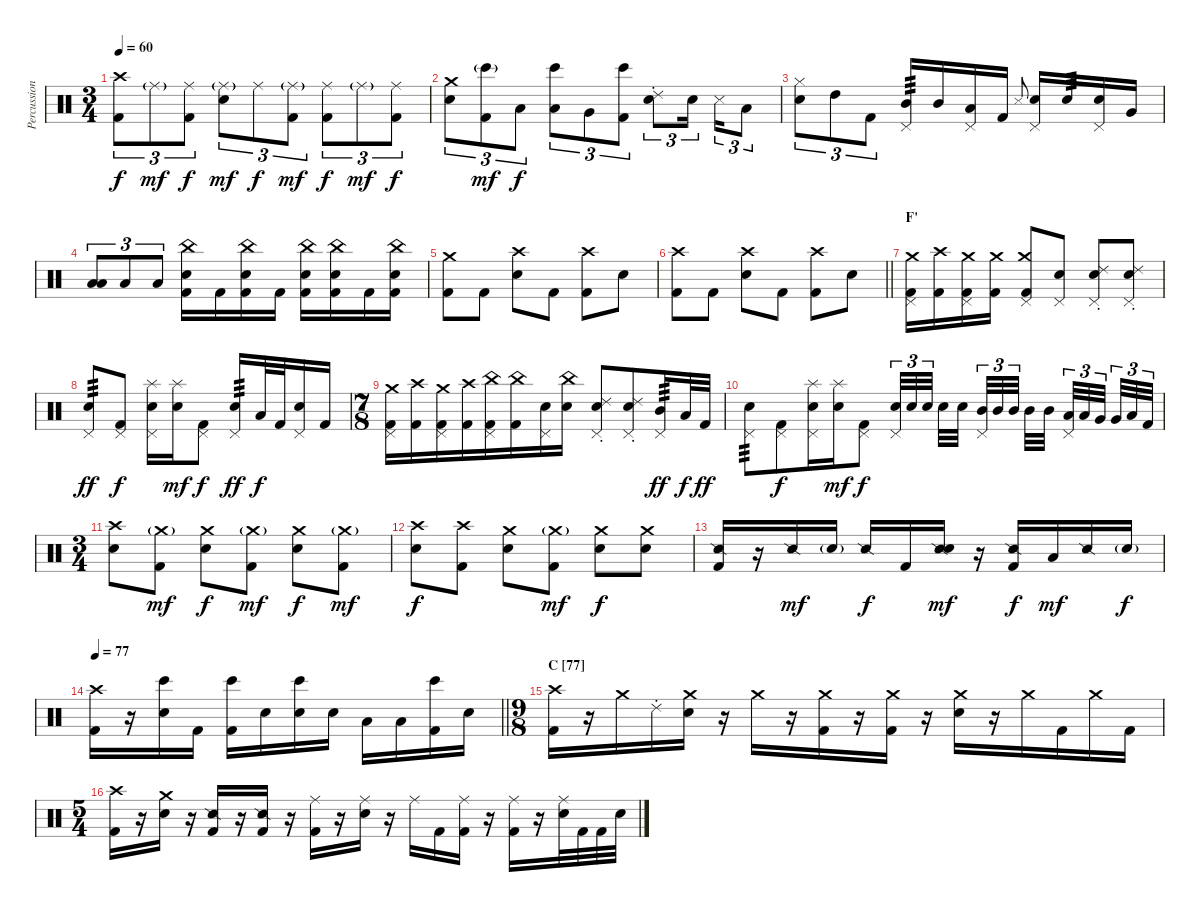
\track ("Percussion" "Percussion") {instrument percussion}
\staff {score}
\articulation defaults
\ts (3 4)
\tempo 60
\clef neutral
\ks c
("Crash high (hit)" "Kick (hit) 2").8{tu (3 2) dy f} "Ride (middle)"{g}.8{tu (3 2) dy mf} ("Ride (middle)" "Kick (hit) 2").8{tu (3 2) dy f} ("Ride (middle)"{g} "Snare (hit) 2").8{tu (3 2) dy mf} "Ride (middle)".8{tu (3 2) dy f} ("Ride (middle)"{g} "Kick (hit) 2").8{tu (3 2) dy mf} ("Ride (middle)" "Kick (hit) 2").8{tu (3 2) dy f} "Ride (middle)"{g}.8{tu (3 2) dy mf} ("Ride (middle)" "Kick (hit) 2").8{tu (3 2) dy f} |
("Crash medium (hit)" "Snare (hit) 2").8{tu (3 2)} ("Bongo High (hit)"{g} "Kick (hit) 2").8{tu (3 2) dy mf} "Low Tom (hit)".8{tu (3 2) dy f} ("Bongo High (hit)" "Low Tom (hit)").8{tu (3 2)} "Very Low Tom (hit)".8{tu (3 2)} ("Bongo High (hit)" "Kick (hit) 2").8{tu (3 2)} ("Ride (choke) 2" "Snare (hit) 2").8{tu (3 2)} "Snare (hit) 2".16{tu (3 2) beam splitsecondary} "Metronome (hit)".16{tu (3 2)} "Low Tom (hit)".8{tu (3 2)} |
("Hi-Hat (closed)" "Snare (hit) 2").8{tu (3 2)} "High Tom (hit)".8{tu (3 2)} "Kick (hit) 2".8{tu (3 2)} ("Pedal Hi-Hat (hit)" "Mid Tom (hit)").16{tp 3} "Mid Tom (hit)".16 ("Pedal Hi-Hat (hit)" "Low Tom (hit)").16 "Kick (hit) 2".16 "Metronome (hit)".8{gr onbeat} ("Pedal Hi-Hat (hit)" "Snare (hit) 2").16 "Snare (hit) 2".16{tp 3} ("Pedal Hi-Hat (hit)" "Snare (hit) 2").16 "Very Low Tom (hit)".16 |
("Low Floor Tom (hit)" "Low Floor Tom (hit)").8{tu (3 2) bu 480} "Low Floor Tom (hit)".8{tu (3 2)} "Low Floor Tom (hit)".8{tu (3 2)} ("China (hit)" "Snare (hit) 2" "Kick (hit) 2").16 "Kick (hit) 2".16 ("China (hit)" "Snare (hit) 2" "Kick (hit) 2").16 "Kick (hit) 2".16 ("China (hit)" "Snare (hit) 2" "Kick (hit) 2").16 ("China (hit)" "Snare (hit) 2" "Kick (hit) 2").16 "Kick (hit) 2".16 ("China (hit)" "Snare (hit) 2" "Kick (hit) 2").16 |
("Crash medium (hit)" "Kick (hit) 2").8 "Kick (hit) 2".8 ("Crash high (hit)" "Snare (hit) 2").8 "Kick (hit) 2".8 ("Crash high (hit)" "Kick (hit) 2").8 "Snare (hit) 2".8 |
\barLineRight lightlight
("Crash high (hit)" "Kick (hit) 2").8 "Kick (hit) 2".8 ("Crash high (hit)" "Snare (hit) 2").8 "Kick (hit) 2".8 ("Crash high (hit)" "Kick (hit) 2").8 "Snare (hit) 2".8 |
\section ("" "F'")
("Crash medium (hit)" "Pedal Hi-Hat (hit)" "Kick (hit) 2").16 ("Crash high (hit)" "Kick (hit) 2").16 ("Crash medium (hit)" "Pedal Hi-Hat (hit)" "Kick (hit) 2").16 ("Crash medium (hit)" "Kick (hit) 2").16 ("Crash medium (hit)" "Pedal Hi-Hat (hit)" "Kick (hit) 2").8 ("Pedal Hi-Hat (hit)" "Snare (hit) 2").8 ("Ride (choke) 2" "Pedal Hi-Hat (hit)" "Snare (hit) 2").8 ("Ride (choke) 2" "Pedal Hi-Hat (hit)" "Snare (hit) 2").8 |
("Pedal Hi-Hat (hit)" "Snare (hit) 2").8{tp 3 dy ff} ("Pedal Hi-Hat (hit)" "Kick (hit) 2").8{dy f} ("Splash (hit)" "Pedal Hi-Hat (hit)" "Snare (hit) 2").16 ("Splash (hit)" "Snare (hit) 2").16{dy mf} ("Pedal Hi-Hat (hit)" "Kick (hit) 2").8{dy f} ("Pedal Hi-Hat (hit)" "Snare (hit) 2").16{tp 3 dy ff} "Low Tom (hit)".32{dy f} "Kick (hit) 2".32 ("Pedal Hi-Hat (hit)" "Snare (hit) 2").16 "Kick (hit) 2".16 |
\ts (7 8)
("Crash medium (hit)" "Pedal Hi-Hat (hit)" "Kick (hit) 2").16 ("Crash high (hit)" "Kick (hit) 2").16 ("Crash medium (hit)" "Pedal Hi-Hat (hit)" "Kick (hit) 2").16 ("Crash high (hit)" "Kick (hit) 2").16 ("China (hit)" "Pedal Hi-Hat (hit)" "Kick (hit) 2").16 ("China (hit)" "Kick (hit) 2").16 ("Pedal Hi-Hat (hit)" "Snare (hit) 2").16 ("China (hit)" "Snare (hit) 2").16 ("Ride (choke) 2" "Pedal Hi-Hat (hit)" "Snare (hit) 2").8 ("Ride (choke) 2" "Pedal Hi-Hat (hit)" "Snare (hit) 2").8 ("Pedal Hi-Hat (hit)" "Mid Tom (hit)").16{tp 3 dy ff} "Low Tom (hit)".32{dy f} "Kick (hit) 2".32{dy ff} |
("Pedal Hi-Hat (hit)" "Snare (hit) 2").8{tp 3} ("Pedal Hi-Hat (hit)" "Kick (hit) 2").8{dy f} ("Splash (hit)" "Pedal Hi-Hat (hit)" "Snare (hit) 2").16 ("Splash (hit)" "Snare (hit) 2").16{dy mf} ("Pedal Hi-Hat (hit)" "Kick (hit) 2").8{dy f} ("Pedal Hi-Hat (hit)" "Snare (hit) 2").32{tu (3 2)} "Snare (hit) 2".32{tu (3 2)} "Snare (hit) 2".32{tu (3 2) beam splitsecondary} "Snare (hit) 2".32 "Snare (hit) 2".32 ("Pedal Hi-Hat (hit)" "Mid Tom (hit)").32{tu (3 2)} "Mid Tom (hit)".32{tu (3 2)} "Mid Tom (hit)".32{tu (3 2) beam splitsecondary} "Mid Tom (hit)".32 "Mid Tom (hit)".32 ("Pedal Hi-Hat (hit)" "Low Tom (hit)").32{tu (3 2)} "Low Tom (hit)".32{tu (3 2)} "Very Low Tom (hit)".32{tu (3 2) beam splitsecondary} "Very Low Tom (hit)".32{tu (3 2)} "Low Floor Tom (hit)".32{tu (3 2)} "Kick (hit) 2".32{tu (3 2)} |
\ts (3 4)
("Crash high (hit)" "Snare (hit) 2").8 ("Crash medium (hit)"{g} "Kick (hit) 2").8{dy mf} ("Crash medium (hit)" "Snare (hit) 2").8{dy f} ("Crash medium (hit)"{g} "Kick (hit) 2").8{dy mf} ("Crash medium (hit)" "Snare (hit) 2").8{dy f} ("Crash medium (hit)"{g} "Kick (hit) 2").8{dy mf} |
("Crash high (hit)" "Snare (hit) 2").8{dy f} ("Crash high (hit)" "Kick (hit) 2").8 ("Crash medium (hit)" "Snare (hit) 2").8 ("Crash medium (hit)"{g} "Kick (hit) 2").8{dy mf} ("Crash medium (hit)" "Snare (hit) 2").8{dy f} ("Crash medium (hit)" "Snare (hit) 2").8 |
("Snare (side stick) 2" "Kick (hit) 2").16 r.16 "Snare (side stick) 2".16{dy mf} "Snare (hit) 2"{g}.16 "Snare (side stick) 2".16{dy f} "Kick (hit) 2".16 ("Snare (side stick) 2" "Snare (hit) 2").16{dy mf} r.16 ("Snare (side stick) 2" "Kick (hit) 2").16{dy f} "Low Tom (hit)".16{dy mf} "Snare (side stick) 2".16 "Snare (hit) 2"{g}.16{dy f} |
\tempo 77
\barLineRight lightlight
("Crash high (hit)" "Kick (hit) 2").16 r.16 ("Bongo High (hit)" "Snare (hit) 2").16 "Kick (hit) 2".16 ("Bongo High (hit)" "Kick (hit) 2").16 "Snare (hit) 2".16 ("Bongo High (hit)" "Snare (hit) 2").16 "Snare (hit) 2".16 "Low Tom (hit)".16 "Low Tom (hit)".16 ("Bongo High (hit)" "Kick (hit) 2").16 "Snare (hit) 2".16 |
\ts (9 8)
\section ("" "C [77]")
("Crash high (hit)" "Kick (hit) 2").16 r.16 "Crash medium (hit)".16 "Ride (choke) 2".16 ("Crash medium (hit)" "Snare (hit) 2").16 r.16 "Crash medium (hit)".16 r.16 ("Crash medium (hit)" "Kick (hit) 2").16 r.16 ("Crash medium (hit)" "Kick (hit) 2").16 r.16 ("Crash medium (hit)" "Snare (hit) 2").16 r.16 "Crash medium (hit)".16 "Kick (hit) 2".16 "Crash medium (hit)".16 "Kick (hit) 2".16 |
\ts (5 4)
("Crash high (hit)" "Kick (hit) 2").16 r.16 ("Crash medium (hit)" "Snare (hit) 2").16 r.16 ("Snare (side stick) 2" "Kick (hit) 2").16 r.16 ("Snare (side stick) 2" "Kick (hit) 2").16 r.16 ("Ride (middle)" "Kick (hit) 2").16 r.16 ("Ride (middle)" "Snare (hit) 2").16 r.16 "Ride (middle)".16 "Kick (hit) 2".16 ("Ride (middle)" "Kick (hit) 2").16 r.16 ("Ride (middle)" "Kick (hit) 2").16 r.16 ("Ride (middle)" "Snare (hit) 2").32 "Kick (hit) 2".32 "Kick (hit) 2".32 "Snare (hit) 2".32
